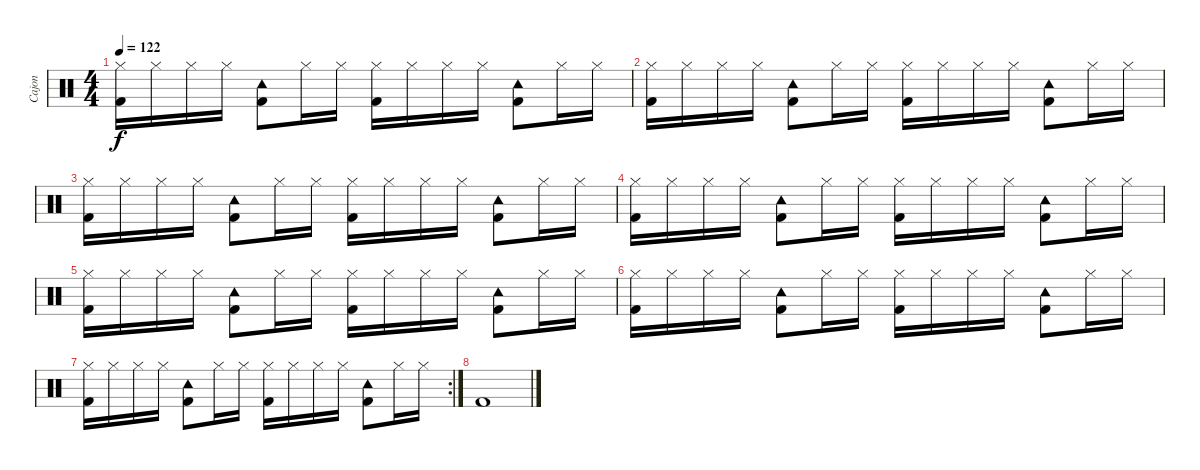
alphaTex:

\track ("Cajon" "Cajon") {instrument percussion}
\staff {score}
\articulation defaults
\ts (4 4)
\tempo 122
\clef neutral
\ks c
("Hi-Hat (closed)" "Kick (hit) 2").16{dy f} "Hi-Hat (closed)".16 "Hi-Hat (closed)".16 "Hi-Hat (closed)".16 ("Tambourine (hit)" "Kick (hit) 2").8 "Hi-Hat (closed)".16 "Hi-Hat (closed)".16 ("Hi-Hat (closed)" "Kick (hit) 2").16 "Hi-Hat (closed)".16 "Hi-Hat (closed)".16 "Hi-Hat (closed)".16 ("Tambourine (hit)" "Kick (hit) 2").8 "Hi-Hat (closed)".16 "Hi-Hat (closed)".16 |
("Hi-Hat (closed)" "Kick (hit) 2").16 "Hi-Hat (closed)".16 "Hi-Hat (closed)".16 "Hi-Hat (closed)".16 ("Tambourine (hit)" "Kick (hit) 2").8 "Hi-Hat (closed)".16 "Hi-Hat (closed)".16 ("Hi-Hat (closed)" "Kick (hit) 2").16 "Hi-Hat (closed)".16 "Hi-Hat (closed)".16 "Hi-Hat (closed)".16 ("Tambourine (hit)" "Kick (hit) 2").8 "Hi-Hat (closed)".16 "Hi-Hat (closed)".16 |
("Hi-Hat (closed)" "Kick (hit) 2").16 "Hi-Hat (closed)".16 "Hi-Hat (closed)".16 "Hi-Hat (closed)".16 ("Tambourine (hit)" "Kick (hit) 2").8 "Hi-Hat (closed)".16 "Hi-Hat (closed)".16 ("Hi-Hat (closed)" "Kick (hit) 2").16 "Hi-Hat (closed)".16 "Hi-Hat (closed)".16 "Hi-Hat (closed)".16 ("Tambourine (hit)" "Kick (hit) 2").8 "Hi-Hat (closed)".16 "Hi-Hat (closed)".16 |
("Hi-Hat (closed)" "Kick (hit) 2").16 "Hi-Hat (closed)".16 "Hi-Hat (closed)".16 "Hi-Hat (closed)".16 ("Tambourine (hit)" "Kick (hit) 2").8 "Hi-Hat (closed)".16 "Hi-Hat (closed)".16 ("Hi-Hat (closed)" "Kick (hit) 2").16 "Hi-Hat (closed)".16 "Hi-Hat (closed)".16 "Hi-Hat (closed)".16 ("Tambourine (hit)" "Kick (hit) 2").8 "Hi-Hat (closed)".16 "Hi-Hat (closed)".16 |
("Hi-Hat (closed)" "Kick (hit) 2").16 "Hi-Hat (closed)".16 "Hi-Hat (closed)".16 "Hi-Hat (closed)".16 ("Tambourine (hit)" "Kick (hit) 2").8 "Hi-Hat (closed)".16 "Hi-Hat (closed)".16 ("Hi-Hat (closed)" "Kick (hit) 2").16 "Hi-Hat (closed)".16 "Hi-Hat (closed)".16 "Hi-Hat (closed)".16 ("Tambourine (hit)" "Kick (hit) 2").8 "Hi-Hat (closed)".16 "Hi-Hat (closed)".16 |
("Hi-Hat (closed)" "Kick (hit) 2").16 "Hi-Hat (closed)".16 "Hi-Hat (closed)".16 "Hi-Hat (closed)".16 ("Tambourine (hit)" "Kick (hit) 2").8 "Hi-Hat (closed)".16 "Hi-Hat (closed)".16 ("Hi-Hat (closed)" "Kick (hit) 2").16 "Hi-Hat (closed)".16 "Hi-Hat (closed)".16 "Hi-Hat (closed)".16 ("Tambourine (hit)" "Kick (hit) 2").8 "Hi-Hat (closed)".16 "Hi-Hat (closed)".16 |
\rc 2
("Hi-Hat (closed)" "Kick (hit) 2").16 "Hi-Hat (closed)".16 "Hi-Hat (closed)".16 "Hi-Hat (closed)".16 ("Tambourine (hit)" "Kick (hit) 2").8 "Hi-Hat (closed)".16 "Hi-Hat (closed)".16 ("Hi-Hat (closed)" "Kick (hit) 2").16 "Hi-Hat (closed)".16 "Hi-Hat (closed)".16 "Hi-Hat (closed)".16 ("Tambourine (hit)" "Kick (hit) 2").8 "Hi-Hat (closed)".16 "Hi-Hat (closed)".16 |
"Kick (hit) 2".1
